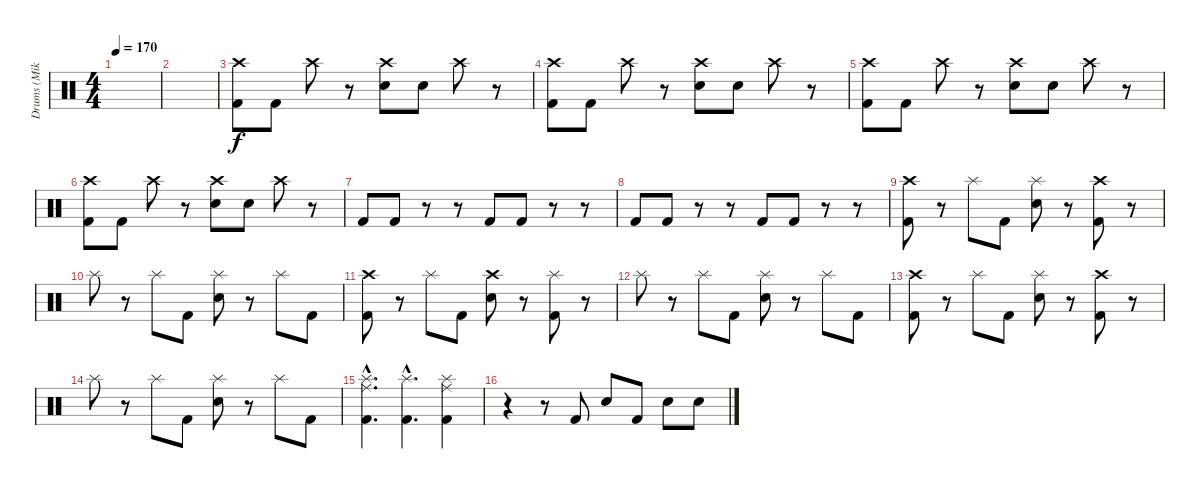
\track ("Drums (Mike C)" "Drums (Mik") {instrument percussion}
\staff {score}
\articulation defaults
\ts (4 4)
\tempo 170
\clef neutral
\ks c
|
|
("Crash high (hit)" "Kick (hit) 2").8 "Kick (hit) 2".8 "Crash high (hit)".8 r.8 ("Crash high (hit)" "Snare (hit) 2").8 "Snare (hit) 2".8 "Crash high (hit)".8 r.8 |
("Crash high (hit)" "Kick (hit) 2").8 "Kick (hit) 2".8 "Crash high (hit)".8 r.8 ("Crash high (hit)" "Snare (hit) 2").8 "Snare (hit) 2".8 "Crash high (hit)".8 r.8 |
("Crash high (hit)" "Kick (hit) 2").8 "Kick (hit) 2".8 "Crash high (hit)".8 r.8 ("Crash high (hit)" "Snare (hit) 2").8 "Snare (hit) 2".8 "Crash high (hit)".8 r.8 |
("Crash high (hit)" "Kick (hit) 2").8 "Kick (hit) 2".8 "Crash high (hit)".8 r.8 ("Crash high (hit)" "Snare (hit) 2").8 "Snare (hit) 2".8 "Crash high (hit)".8 r.8 |
"Kick (hit) 2".8 "Kick (hit) 2".8 r.8 r.8 "Kick (hit) 2".8 "Kick (hit) 2".8 r.8 r.8 |
"Kick (hit) 2".8 "Kick (hit) 2".8 r.8 r.8 "Kick (hit) 2".8 "Kick (hit) 2".8 r.8 r.8 |
("Crash high (hit)" "Kick (hit) 2").8 r.8 "Splash (hit)".8 "Kick (hit) 2".8 ("Splash (hit)" "Snare (hit) 2").8 r.8 ("Crash high (hit)" "Kick (hit) 2").8 r.8 |
"Splash (hit)".8 r.8 "Splash (hit)".8 "Kick (hit) 2".8 ("Splash (hit)" "Snare (hit) 2").8 r.8 "Splash (hit)".8 "Kick (hit) 2".8 |
("Crash high (hit)" "Kick (hit) 2").8 r.8 "Splash (hit)".8 "Kick (hit) 2".8 ("Crash high (hit)" "Snare (hit) 2").8 r.8 ("Splash (hit)" "Kick (hit) 2").8 r.8 |
"Splash (hit)".8 r.8 "Splash (hit)".8 "Kick (hit) 2".8 ("Splash (hit)" "Snare (hit) 2").8 r.8 "Splash (hit)".8 "Kick (hit) 2".8 |
("Crash high (hit)" "Kick (hit) 2").8 r.8 "Splash (hit)".8 "Kick (hit) 2".8 ("Splash (hit)" "Snare (hit) 2").8 r.8 ("Crash high (hit)" "Kick (hit) 2").8 r.8 |
"Splash (hit)".8 r.8 "Splash (hit)".8 "Kick (hit) 2".8 ("Splash (hit)" "Snare (hit) 2").8 r.8 "Splash (hit)".8 "Kick (hit) 2".8 |
("Ride (middle)"{hac} "Splash (hit)"{hac} "Kick (hit) 2"{hac}).4{d} ("Splash (hit)"{hac} "Kick (hit) 2"{hac}).4{d} ("Ride (middle)" "Splash (hit)" "Kick (hit) 2").4 |
r.4 r.8 "Kick (hit) 2".8 "Snare (hit) 2".8 "Kick (hit) 2".8 "Snare (hit) 2".8 "Snare (hit) 2".8
